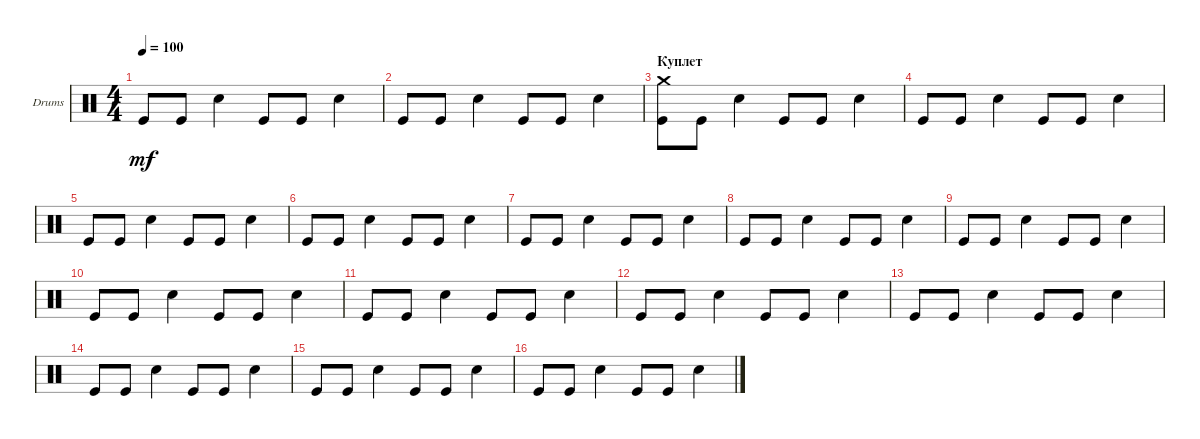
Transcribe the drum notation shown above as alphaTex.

\defaultSystemsLayout 4
\bracketExtendMode groupsimilarinstruments
\firstSystemTrackNameOrientation horizontal
\otherSystemsTrackNameOrientation horizontal
\track ("Е. Кулаков" "Drums") {instrument percussion}
\staff {score}
\articulation defaults
\ts (4 4)
\tempo 100
\clef neutral
\ks c "Kick (hit)".8{dy mf} "Kick (hit)".8 "Snare (hit) 2".4 "Kick (hit)".8 "Kick (hit)".8 "Snare (hit) 2".4
|
"Kick (hit)".8 "Kick (hit)".8 "Snare (hit) 2".4 "Kick (hit)".8 "Kick (hit)".8 "Snare (hit) 2".4 |
\section ("" "Куплет")
("Kick (hit)" "Crash medium (hit)").8 "Kick (hit)".8 "Snare (hit) 2".4 "Kick (hit)".8 "Kick (hit)".8 "Snare (hit) 2".4 |
"Kick (hit)".8 "Kick (hit)".8 "Snare (hit) 2".4 "Kick (hit)".8 "Kick (hit)".8 "Snare (hit) 2".4 |
"Kick (hit)".8 "Kick (hit)".8 "Snare (hit) 2".4 "Kick (hit)".8 "Kick (hit)".8 "Snare (hit) 2".4 |
"Kick (hit)".8 "Kick (hit)".8 "Snare (hit) 2".4 "Kick (hit)".8 "Kick (hit)".8 "Snare (hit) 2".4 |
"Kick (hit)".8 "Kick (hit)".8 "Snare (hit) 2".4 "Kick (hit)".8 "Kick (hit)".8 "Snare (hit) 2".4 |
"Kick (hit)".8 "Kick (hit)".8 "Snare (hit) 2".4 "Kick (hit)".8 "Kick (hit)".8 "Snare (hit) 2".4 |
"Kick (hit)".8 "Kick (hit)".8 "Snare (hit) 2".4 "Kick (hit)".8 "Kick (hit)".8 "Snare (hit) 2".4 |
"Kick (hit)".8 "Kick (hit)".8 "Snare (hit) 2".4 "Kick (hit)".8 "Kick (hit)".8 "Snare (hit) 2".4 |
"Kick (hit)".8 "Kick (hit)".8 "Snare (hit) 2".4 "Kick (hit)".8 "Kick (hit)".8 "Snare (hit) 2".4 |
"Kick (hit)".8 "Kick (hit)".8 "Snare (hit) 2".4 "Kick (hit)".8 "Kick (hit)".8 "Snare (hit) 2".4 |
"Kick (hit)".8 "Kick (hit)".8 "Snare (hit) 2".4 "Kick (hit)".8 "Kick (hit)".8 "Snare (hit) 2".4 |
"Kick (hit)".8 "Kick (hit)".8 "Snare (hit) 2".4 "Kick (hit)".8 "Kick (hit)".8 "Snare (hit) 2".4 |
"Kick (hit)".8 "Kick (hit)".8 "Snare (hit) 2".4 "Kick (hit)".8 "Kick (hit)".8 "Snare (hit) 2".4 |
"Kick (hit)".8 "Kick (hit)".8 "Snare (hit) 2".4 "Kick (hit)".8 "Kick (hit)".8 "Snare (hit) 2".4
